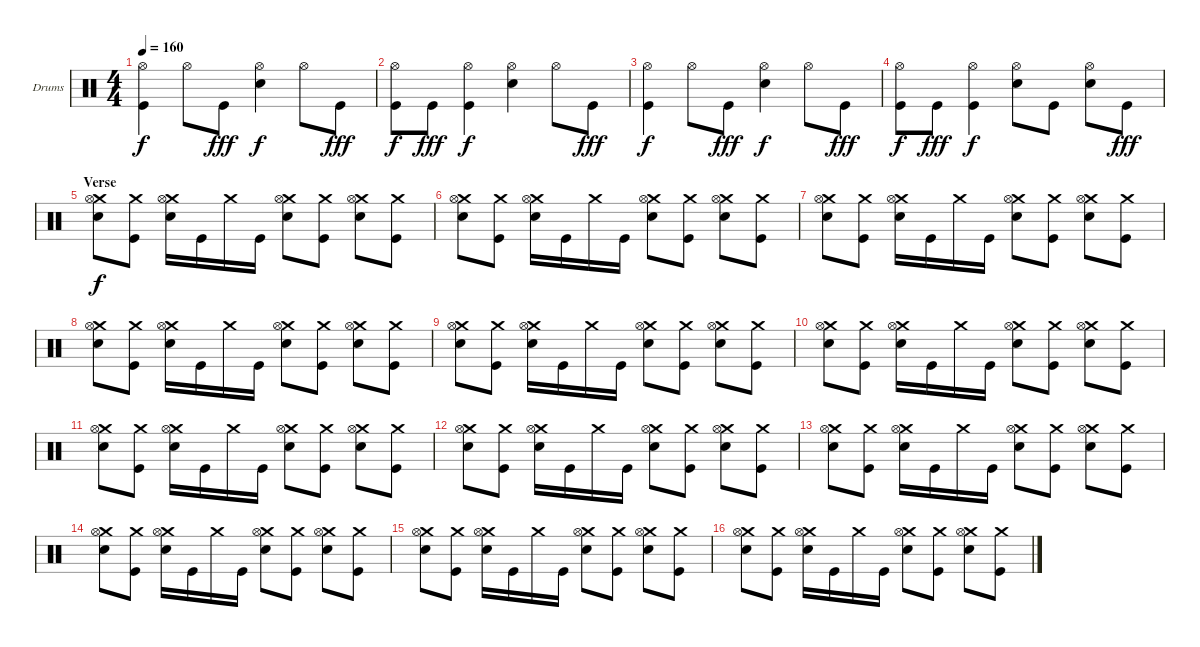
\bracketExtendMode groupsimilarinstruments
\firstSystemTrackNameOrientation horizontal
\otherSystemsTrackNameOrientation horizontal
\track ("Lars Ulrich (Drum)" "Drums") {instrument percussion}
\staff {score}
\articulation defaults
\ts (4 4)
\tempo 160
\clef neutral
\ks c
("Hi-Hat (open)" "Kick (hit)").4{dy f} "Hi-Hat (open)".8 "Kick (hit)".8{dy fff} ("Hi-Hat (open)" "Snare (hit) 2").4{dy f} "Hi-Hat (open)".8 "Kick (hit)".8{dy fff} |
("Hi-Hat (open)" "Kick (hit)").8{dy f} "Kick (hit)".8{dy fff} ("Hi-Hat (open)" "Kick (hit)").4{dy f} ("Hi-Hat (open)" "Snare (hit) 2").4 "Hi-Hat (open)".8 "Kick (hit)".8{dy fff} |
("Hi-Hat (open)" "Kick (hit)").4{dy f} "Hi-Hat (open)".8 "Kick (hit)".8{dy fff} ("Hi-Hat (open)" "Snare (hit) 2").4{dy f} "Hi-Hat (open)".8 "Kick (hit)".8{dy fff} |
("Hi-Hat (open)" "Kick (hit)").8{dy f} "Kick (hit)".8{dy fff} ("Hi-Hat (open)" "Kick (hit)").4{dy f} ("Hi-Hat (open)" "Snare (hit) 2").8 "Kick (hit)".8 ("Hi-Hat (open)" "Snare (hit) 2").8 "Kick (hit)".8{dy fff} |
\section ("" "Verse")
("Crash medium (hit)" "Hi-Hat (open)" "Snare (hit) 2").8{dy f} ("Crash medium (hit)" "Kick (hit)").8 ("Crash medium (hit)" "Hi-Hat (open)" "Snare (hit) 2").16 "Kick (hit)".16 "Crash medium (hit)".16 "Kick (hit)".16 ("Crash medium (hit)" "Hi-Hat (open)" "Snare (hit) 2").8 ("Crash medium (hit)" "Kick (hit)").8 ("Crash medium (hit)" "Hi-Hat (open)" "Snare (hit) 2").8 ("Crash medium (hit)" "Kick (hit)").8 |
("Crash medium (hit)" "Hi-Hat (open)" "Snare (hit) 2").8 ("Crash medium (hit)" "Kick (hit)").8 ("Crash medium (hit)" "Hi-Hat (open)" "Snare (hit) 2").16 "Kick (hit)".16 "Crash medium (hit)".16 "Kick (hit)".16 ("Crash medium (hit)" "Hi-Hat (open)" "Snare (hit) 2").8 ("Crash medium (hit)" "Kick (hit)").8 ("Crash medium (hit)" "Hi-Hat (open)" "Snare (hit) 2").8 ("Crash medium (hit)" "Kick (hit)").8 |
("Crash medium (hit)" "Hi-Hat (open)" "Snare (hit) 2").8 ("Crash medium (hit)" "Kick (hit)").8 ("Crash medium (hit)" "Hi-Hat (open)" "Snare (hit) 2").16 "Kick (hit)".16 "Crash medium (hit)".16 "Kick (hit)".16 ("Crash medium (hit)" "Hi-Hat (open)" "Snare (hit) 2").8 ("Crash medium (hit)" "Kick (hit)").8 ("Crash medium (hit)" "Hi-Hat (open)" "Snare (hit) 2").8 ("Crash medium (hit)" "Kick (hit)").8 |
("Crash medium (hit)" "Hi-Hat (open)" "Snare (hit) 2").8 ("Crash medium (hit)" "Kick (hit)").8 ("Crash medium (hit)" "Hi-Hat (open)" "Snare (hit) 2").16 "Kick (hit)".16 "Crash medium (hit)".16 "Kick (hit)".16 ("Crash medium (hit)" "Hi-Hat (open)" "Snare (hit) 2").8 ("Crash medium (hit)" "Kick (hit)").8 ("Crash medium (hit)" "Hi-Hat (open)" "Snare (hit) 2").8 ("Crash medium (hit)" "Kick (hit)").8 |
("Crash medium (hit)" "Hi-Hat (open)" "Snare (hit) 2").8 ("Crash medium (hit)" "Kick (hit)").8 ("Crash medium (hit)" "Hi-Hat (open)" "Snare (hit) 2").16 "Kick (hit)".16 "Crash medium (hit)".16 "Kick (hit)".16 ("Crash medium (hit)" "Hi-Hat (open)" "Snare (hit) 2").8 ("Crash medium (hit)" "Kick (hit)").8 ("Crash medium (hit)" "Hi-Hat (open)" "Snare (hit) 2").8 ("Crash medium (hit)" "Kick (hit)").8 |
("Crash medium (hit)" "Hi-Hat (open)" "Snare (hit) 2").8 ("Crash medium (hit)" "Kick (hit)").8 ("Crash medium (hit)" "Hi-Hat (open)" "Snare (hit) 2").16 "Kick (hit)".16 "Crash medium (hit)".16 "Kick (hit)".16 ("Crash medium (hit)" "Hi-Hat (open)" "Snare (hit) 2").8 ("Crash medium (hit)" "Kick (hit)").8 ("Crash medium (hit)" "Hi-Hat (open)" "Snare (hit) 2").8 ("Crash medium (hit)" "Kick (hit)").8 |
("Crash medium (hit)" "Hi-Hat (open)" "Snare (hit) 2").8 ("Crash medium (hit)" "Kick (hit)").8 ("Crash medium (hit)" "Hi-Hat (open)" "Snare (hit) 2").16 "Kick (hit)".16 "Crash medium (hit)".16 "Kick (hit)".16 ("Crash medium (hit)" "Hi-Hat (open)" "Snare (hit) 2").8 ("Crash medium (hit)" "Kick (hit)").8 ("Crash medium (hit)" "Hi-Hat (open)" "Snare (hit) 2").8 ("Crash medium (hit)" "Kick (hit)").8 |
("Crash medium (hit)" "Hi-Hat (open)" "Snare (hit) 2").8 ("Crash medium (hit)" "Kick (hit)").8 ("Crash medium (hit)" "Hi-Hat (open)" "Snare (hit) 2").16 "Kick (hit)".16 "Crash medium (hit)".16 "Kick (hit)".16 ("Crash medium (hit)" "Hi-Hat (open)" "Snare (hit) 2").8 ("Crash medium (hit)" "Kick (hit)").8 ("Crash medium (hit)" "Hi-Hat (open)" "Snare (hit) 2").8 ("Crash medium (hit)" "Kick (hit)").8 |
("Crash medium (hit)" "Hi-Hat (open)" "Snare (hit) 2").8 ("Crash medium (hit)" "Kick (hit)").8 ("Crash medium (hit)" "Hi-Hat (open)" "Snare (hit) 2").16 "Kick (hit)".16 "Crash medium (hit)".16 "Kick (hit)".16 ("Crash medium (hit)" "Hi-Hat (open)" "Snare (hit) 2").8 ("Crash medium (hit)" "Kick (hit)").8 ("Crash medium (hit)" "Hi-Hat (open)" "Snare (hit) 2").8 ("Crash medium (hit)" "Kick (hit)").8 |
("Crash medium (hit)" "Hi-Hat (open)" "Snare (hit) 2").8 ("Crash medium (hit)" "Kick (hit)").8 ("Crash medium (hit)" "Hi-Hat (open)" "Snare (hit) 2").16 "Kick (hit)".16 "Crash medium (hit)".16 "Kick (hit)".16 ("Crash medium (hit)" "Hi-Hat (open)" "Snare (hit) 2").8 ("Crash medium (hit)" "Kick (hit)").8 ("Crash medium (hit)" "Hi-Hat (open)" "Snare (hit) 2").8 ("Crash medium (hit)" "Kick (hit)").8 |
("Crash medium (hit)" "Hi-Hat (open)" "Snare (hit) 2").8 ("Crash medium (hit)" "Kick (hit)").8 ("Crash medium (hit)" "Hi-Hat (open)" "Snare (hit) 2").16 "Kick (hit)".16 "Crash medium (hit)".16 "Kick (hit)".16 ("Crash medium (hit)" "Hi-Hat (open)" "Snare (hit) 2").8 ("Crash medium (hit)" "Kick (hit)").8 ("Crash medium (hit)" "Hi-Hat (open)" "Snare (hit) 2").8 ("Crash medium (hit)" "Kick (hit)").8 |
("Crash medium (hit)" "Hi-Hat (open)" "Snare (hit) 2").8 ("Crash medium (hit)" "Kick (hit)").8 ("Crash medium (hit)" "Hi-Hat (open)" "Snare (hit) 2").16 "Kick (hit)".16 "Crash medium (hit)".16 "Kick (hit)".16 ("Crash medium (hit)" "Hi-Hat (open)" "Snare (hit) 2").8 ("Crash medium (hit)" "Kick (hit)").8 ("Crash medium (hit)" "Hi-Hat (open)" "Snare (hit) 2").8 ("Crash medium (hit)" "Kick (hit)").8
